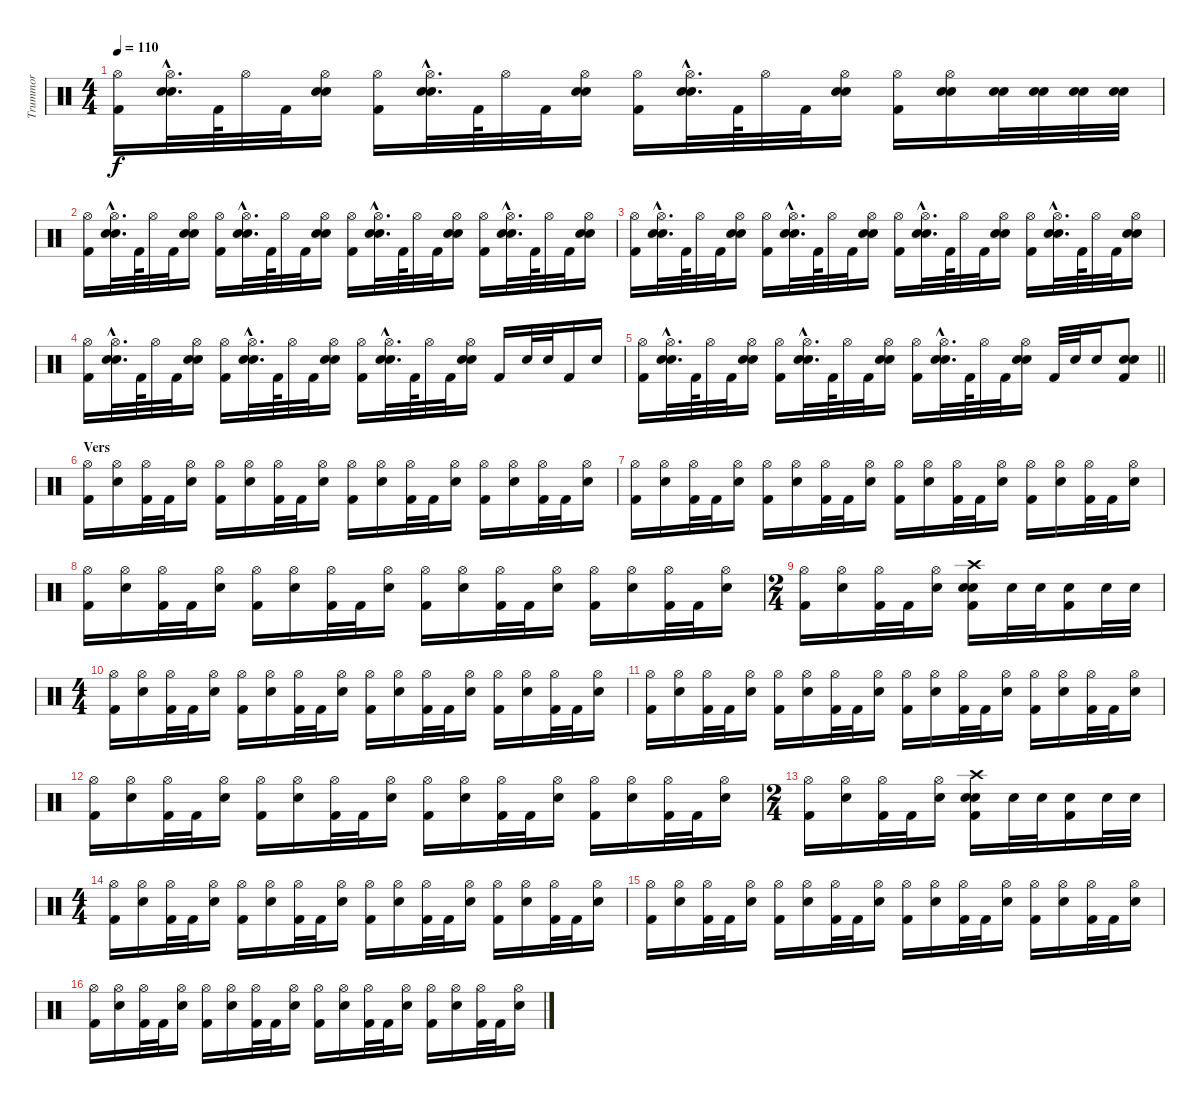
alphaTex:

\track ("Trummor" "Trummor") {instrument percussion}
\staff {score}
\articulation defaults
\ts (4 4)
\tempo 110
\clef neutral
\ks c
("Hi-Hat (open)" "Kick (hit) 2").16{dy f} ("Hi-Hat (open)"{hac} "Electric Snare (hit)"{hac} "Electric Snare (hit)"{hac}).32{d} "Kick (hit) 2".64 "Hi-Hat (open)".32 "Kick (hit) 2".32 ("Hi-Hat (open)" "Electric Snare (hit)" "Electric Snare (hit)").16 ("Hi-Hat (open)" "Kick (hit) 2").16 ("Hi-Hat (open)"{hac} "Electric Snare (hit)"{hac} "Electric Snare (hit)"{hac}).32{d} "Kick (hit) 2".64 "Hi-Hat (open)".32 "Kick (hit) 2".32 ("Hi-Hat (open)" "Electric Snare (hit)" "Electric Snare (hit)").16 ("Hi-Hat (open)" "Kick (hit) 2").16 ("Hi-Hat (open)"{hac} "Electric Snare (hit)"{hac} "Electric Snare (hit)"{hac}).32{d} "Kick (hit) 2".64 "Hi-Hat (open)".32 "Kick (hit) 2".32 ("Hi-Hat (open)" "Electric Snare (hit)" "Electric Snare (hit)").16 ("Hi-Hat (open)" "Kick (hit) 2").16 ("Hi-Hat (open)" "Electric Snare (hit)" "Electric Snare (hit)").16 ("Electric Snare (hit)" "Electric Snare (hit)").32 ("Electric Snare (hit)" "Electric Snare (hit)").32 ("Electric Snare (hit)" "Electric Snare (hit)").32 ("Electric Snare (hit)" "Electric Snare (hit)").32 |
("Hi-Hat (open)" "Kick (hit) 2").16 ("Hi-Hat (open)"{hac} "Electric Snare (hit)"{hac} "Electric Snare (hit)"{hac}).32{d} "Kick (hit) 2".64 "Hi-Hat (open)".32 "Kick (hit) 2".32 ("Hi-Hat (open)" "Electric Snare (hit)" "Electric Snare (hit)").16 ("Hi-Hat (open)" "Kick (hit) 2").16 ("Hi-Hat (open)"{hac} "Electric Snare (hit)"{hac} "Electric Snare (hit)"{hac}).32{d} "Kick (hit) 2".64 "Hi-Hat (open)".32 "Kick (hit) 2".32 ("Hi-Hat (open)" "Electric Snare (hit)" "Electric Snare (hit)").16 ("Hi-Hat (open)" "Kick (hit) 2").16 ("Hi-Hat (open)"{hac} "Electric Snare (hit)"{hac} "Electric Snare (hit)"{hac}).32{d} "Kick (hit) 2".64 "Hi-Hat (open)".32 "Kick (hit) 2".32 ("Hi-Hat (open)" "Electric Snare (hit)" "Electric Snare (hit)").16 ("Hi-Hat (open)" "Kick (hit) 2").16 ("Hi-Hat (open)"{hac} "Electric Snare (hit)"{hac} "Electric Snare (hit)"{hac}).32{d} "Kick (hit) 2".64 "Hi-Hat (open)".32 "Kick (hit) 2".32 ("Hi-Hat (open)" "Electric Snare (hit)" "Electric Snare (hit)").16 |
("Hi-Hat (open)" "Kick (hit) 2").16 ("Hi-Hat (open)"{hac} "Electric Snare (hit)"{hac} "Electric Snare (hit)"{hac}).32{d} "Kick (hit) 2".64 "Hi-Hat (open)".32 "Kick (hit) 2".32 ("Hi-Hat (open)" "Electric Snare (hit)" "Electric Snare (hit)").16 ("Hi-Hat (open)" "Kick (hit) 2").16 ("Hi-Hat (open)"{hac} "Electric Snare (hit)"{hac} "Electric Snare (hit)"{hac}).32{d} "Kick (hit) 2".64 "Hi-Hat (open)".32 "Kick (hit) 2".32 ("Hi-Hat (open)" "Electric Snare (hit)" "Electric Snare (hit)").16 ("Hi-Hat (open)" "Kick (hit) 2").16 ("Hi-Hat (open)"{hac} "Electric Snare (hit)"{hac} "Electric Snare (hit)"{hac}).32{d} "Kick (hit) 2".64 "Hi-Hat (open)".32 "Kick (hit) 2".32 ("Hi-Hat (open)" "Electric Snare (hit)" "Electric Snare (hit)").16 ("Hi-Hat (open)" "Kick (hit) 2").16 ("Hi-Hat (open)"{hac} "Electric Snare (hit)"{hac} "Electric Snare (hit)"{hac}).32{d} "Kick (hit) 2".64 "Hi-Hat (open)".32 "Kick (hit) 2".32 ("Hi-Hat (open)" "Electric Snare (hit)" "Electric Snare (hit)").16 |
("Hi-Hat (open)" "Kick (hit) 2").16 ("Hi-Hat (open)"{hac} "Electric Snare (hit)"{hac} "Electric Snare (hit)"{hac}).32{d} "Kick (hit) 2".64 "Hi-Hat (open)".32 "Kick (hit) 2".32 ("Hi-Hat (open)" "Electric Snare (hit)" "Electric Snare (hit)").16 ("Hi-Hat (open)" "Kick (hit) 2").16 ("Hi-Hat (open)"{hac} "Electric Snare (hit)"{hac} "Electric Snare (hit)"{hac}).32{d} "Kick (hit) 2".64 "Hi-Hat (open)".32 "Kick (hit) 2".32 ("Hi-Hat (open)" "Electric Snare (hit)" "Electric Snare (hit)").16 ("Hi-Hat (open)" "Kick (hit) 2").16 ("Hi-Hat (open)"{hac} "Electric Snare (hit)"{hac} "Electric Snare (hit)"{hac}).32{d} "Kick (hit) 2".64 "Hi-Hat (open)".32 "Kick (hit) 2".32 ("Hi-Hat (open)" "Electric Snare (hit)" "Electric Snare (hit)").16 "Kick (hit) 2".16 "Electric Snare (hit)".32 "Electric Snare (hit)".32 "Kick (hit) 2".16 "Electric Snare (hit)".16 |
\barLineRight lightlight
("Hi-Hat (open)" "Kick (hit) 2").16 ("Hi-Hat (open)"{hac} "Electric Snare (hit)"{hac} "Electric Snare (hit)"{hac}).32{d} "Kick (hit) 2".64 "Hi-Hat (open)".32 "Kick (hit) 2".32 ("Hi-Hat (open)" "Electric Snare (hit)" "Electric Snare (hit)").16 ("Hi-Hat (open)" "Kick (hit) 2").16 ("Hi-Hat (open)"{hac} "Electric Snare (hit)"{hac} "Electric Snare (hit)"{hac}).32{d} "Kick (hit) 2".64 "Hi-Hat (open)".32 "Kick (hit) 2".32 ("Hi-Hat (open)" "Electric Snare (hit)" "Electric Snare (hit)").16 ("Hi-Hat (open)" "Kick (hit) 2").16 ("Hi-Hat (open)"{hac} "Electric Snare (hit)"{hac} "Electric Snare (hit)"{hac}).32{d} "Kick (hit) 2".64 "Hi-Hat (open)".32 "Kick (hit) 2".32 ("Hi-Hat (open)" "Electric Snare (hit)" "Electric Snare (hit)").16 "Kick (hit) 2".32 "Electric Snare (hit)".32 "Electric Snare (hit)".16 ("Electric Snare (hit)" "Electric Snare (hit)" "Kick (hit) 2").8 |
\section ("" "Vers")
("Hi-Hat (open)" "Kick (hit) 2").16 ("Hi-Hat (open)" "Electric Snare (hit)").16 ("Hi-Hat (open)" "Kick (hit) 2").32 "Kick (hit) 2".32 ("Hi-Hat (open)" "Electric Snare (hit)").16 ("Hi-Hat (open)" "Kick (hit) 2").16 ("Hi-Hat (open)" "Electric Snare (hit)").16 ("Hi-Hat (open)" "Kick (hit) 2").32 "Kick (hit) 2".32 ("Hi-Hat (open)" "Electric Snare (hit)").16 ("Hi-Hat (open)" "Kick (hit) 2").16 ("Hi-Hat (open)" "Electric Snare (hit)").16 ("Hi-Hat (open)" "Kick (hit) 2").32 "Kick (hit) 2".32 ("Hi-Hat (open)" "Electric Snare (hit)").16 ("Hi-Hat (open)" "Kick (hit) 2").16 ("Hi-Hat (open)" "Electric Snare (hit)").16 ("Hi-Hat (open)" "Kick (hit) 2").32 "Kick (hit) 2".32 ("Hi-Hat (open)" "Electric Snare (hit)").16 |
("Hi-Hat (open)" "Kick (hit) 2").16 ("Hi-Hat (open)" "Electric Snare (hit)").16 ("Hi-Hat (open)" "Kick (hit) 2").32 "Kick (hit) 2".32 ("Hi-Hat (open)" "Electric Snare (hit)").16 ("Hi-Hat (open)" "Kick (hit) 2").16 ("Hi-Hat (open)" "Electric Snare (hit)").16 ("Hi-Hat (open)" "Kick (hit) 2").32 "Kick (hit) 2".32 ("Hi-Hat (open)" "Electric Snare (hit)").16 ("Hi-Hat (open)" "Kick (hit) 2").16 ("Hi-Hat (open)" "Electric Snare (hit)").16 ("Hi-Hat (open)" "Kick (hit) 2").32 "Kick (hit) 2".32 ("Hi-Hat (open)" "Electric Snare (hit)").16 ("Hi-Hat (open)" "Kick (hit) 2").16 ("Hi-Hat (open)" "Electric Snare (hit)").16 ("Hi-Hat (open)" "Kick (hit) 2").32 "Kick (hit) 2".32 ("Hi-Hat (open)" "Electric Snare (hit)").16 |
("Hi-Hat (open)" "Kick (hit) 2").16 ("Hi-Hat (open)" "Electric Snare (hit)").16 ("Hi-Hat (open)" "Kick (hit) 2").32 "Kick (hit) 2".32 ("Hi-Hat (open)" "Electric Snare (hit)").16 ("Hi-Hat (open)" "Kick (hit) 2").16 ("Hi-Hat (open)" "Electric Snare (hit)").16 ("Hi-Hat (open)" "Kick (hit) 2").32 "Kick (hit) 2".32 ("Hi-Hat (open)" "Electric Snare (hit)").16 ("Hi-Hat (open)" "Kick (hit) 2").16 ("Hi-Hat (open)" "Electric Snare (hit)").16 ("Hi-Hat (open)" "Kick (hit) 2").32 "Kick (hit) 2".32 ("Hi-Hat (open)" "Electric Snare (hit)").16 ("Hi-Hat (open)" "Kick (hit) 2").16 ("Hi-Hat (open)" "Electric Snare (hit)").16 ("Hi-Hat (open)" "Kick (hit) 2").32 "Kick (hit) 2".32 ("Hi-Hat (open)" "Electric Snare (hit)").16 |
\ts (2 4)
("Hi-Hat (open)" "Kick (hit) 2").16 ("Hi-Hat (open)" "Electric Snare (hit)").16 ("Hi-Hat (open)" "Kick (hit) 2").32 "Kick (hit) 2".32 ("Hi-Hat (open)" "Electric Snare (hit)").16 ("Crash high (hit)" "Electric Snare (hit)" "Electric Snare (hit)" "Kick (hit) 2").16 "Electric Snare (hit)".32 "Electric Snare (hit)".32 ("Electric Snare (hit)" "Kick (hit) 2").16 "Electric Snare (hit)".32 "Electric Snare (hit)".32 |
\ts (4 4)
("Hi-Hat (open)" "Kick (hit) 2").16 ("Hi-Hat (open)" "Electric Snare (hit)").16 ("Hi-Hat (open)" "Kick (hit) 2").32 "Kick (hit) 2".32 ("Hi-Hat (open)" "Electric Snare (hit)").16 ("Hi-Hat (open)" "Kick (hit) 2").16 ("Hi-Hat (open)" "Electric Snare (hit)").16 ("Hi-Hat (open)" "Kick (hit) 2").32 "Kick (hit) 2".32 ("Hi-Hat (open)" "Electric Snare (hit)").16 ("Hi-Hat (open)" "Kick (hit) 2").16 ("Hi-Hat (open)" "Electric Snare (hit)").16 ("Hi-Hat (open)" "Kick (hit) 2").32 "Kick (hit) 2".32 ("Hi-Hat (open)" "Electric Snare (hit)").16 ("Hi-Hat (open)" "Kick (hit) 2").16 ("Hi-Hat (open)" "Electric Snare (hit)").16 ("Hi-Hat (open)" "Kick (hit) 2").32 "Kick (hit) 2".32 ("Hi-Hat (open)" "Electric Snare (hit)").16 |
("Hi-Hat (open)" "Kick (hit) 2").16 ("Hi-Hat (open)" "Electric Snare (hit)").16 ("Hi-Hat (open)" "Kick (hit) 2").32 "Kick (hit) 2".32 ("Hi-Hat (open)" "Electric Snare (hit)").16 ("Hi-Hat (open)" "Kick (hit) 2").16 ("Hi-Hat (open)" "Electric Snare (hit)").16 ("Hi-Hat (open)" "Kick (hit) 2").32 "Kick (hit) 2".32 ("Hi-Hat (open)" "Electric Snare (hit)").16 ("Hi-Hat (open)" "Kick (hit) 2").16 ("Hi-Hat (open)" "Electric Snare (hit)").16 ("Hi-Hat (open)" "Kick (hit) 2").32 "Kick (hit) 2".32 ("Hi-Hat (open)" "Electric Snare (hit)").16 ("Hi-Hat (open)" "Kick (hit) 2").16 ("Hi-Hat (open)" "Electric Snare (hit)").16 ("Hi-Hat (open)" "Kick (hit) 2").32 "Kick (hit) 2".32 ("Hi-Hat (open)" "Electric Snare (hit)").16 |
("Hi-Hat (open)" "Kick (hit) 2").16 ("Hi-Hat (open)" "Electric Snare (hit)").16 ("Hi-Hat (open)" "Kick (hit) 2").32 "Kick (hit) 2".32 ("Hi-Hat (open)" "Electric Snare (hit)").16 ("Hi-Hat (open)" "Kick (hit) 2").16 ("Hi-Hat (open)" "Electric Snare (hit)").16 ("Hi-Hat (open)" "Kick (hit) 2").32 "Kick (hit) 2".32 ("Hi-Hat (open)" "Electric Snare (hit)").16 ("Hi-Hat (open)" "Kick (hit) 2").16 ("Hi-Hat (open)" "Electric Snare (hit)").16 ("Hi-Hat (open)" "Kick (hit) 2").32 "Kick (hit) 2".32 ("Hi-Hat (open)" "Electric Snare (hit)").16 ("Hi-Hat (open)" "Kick (hit) 2").16 ("Hi-Hat (open)" "Electric Snare (hit)").16 ("Hi-Hat (open)" "Kick (hit) 2").32 "Kick (hit) 2".32 ("Hi-Hat (open)" "Electric Snare (hit)").16 |
\ts (2 4)
("Hi-Hat (open)" "Kick (hit) 2").16 ("Hi-Hat (open)" "Electric Snare (hit)").16 ("Hi-Hat (open)" "Kick (hit) 2").32 "Kick (hit) 2".32 ("Hi-Hat (open)" "Electric Snare (hit)").16 ("Crash high (hit)" "Electric Snare (hit)" "Electric Snare (hit)" "Kick (hit) 2").16 "Electric Snare (hit)".32 "Electric Snare (hit)".32 ("Electric Snare (hit)" "Kick (hit) 2").16 "Electric Snare (hit)".32 "Electric Snare (hit)".32 |
\ts (4 4)
("Hi-Hat (open)" "Kick (hit) 2").16 ("Hi-Hat (open)" "Electric Snare (hit)").16 ("Hi-Hat (open)" "Kick (hit) 2").32 "Kick (hit) 2".32 ("Hi-Hat (open)" "Electric Snare (hit)").16 ("Hi-Hat (open)" "Kick (hit) 2").16 ("Hi-Hat (open)" "Electric Snare (hit)").16 ("Hi-Hat (open)" "Kick (hit) 2").32 "Kick (hit) 2".32 ("Hi-Hat (open)" "Electric Snare (hit)").16 ("Hi-Hat (open)" "Kick (hit) 2").16 ("Hi-Hat (open)" "Electric Snare (hit)").16 ("Hi-Hat (open)" "Kick (hit) 2").32 "Kick (hit) 2".32 ("Hi-Hat (open)" "Electric Snare (hit)").16 ("Hi-Hat (open)" "Kick (hit) 2").16 ("Hi-Hat (open)" "Electric Snare (hit)").16 ("Hi-Hat (open)" "Kick (hit) 2").32 "Kick (hit) 2".32 ("Hi-Hat (open)" "Electric Snare (hit)").16 |
("Hi-Hat (open)" "Kick (hit) 2").16 ("Hi-Hat (open)" "Electric Snare (hit)").16 ("Hi-Hat (open)" "Kick (hit) 2").32 "Kick (hit) 2".32 ("Hi-Hat (open)" "Electric Snare (hit)").16 ("Hi-Hat (open)" "Kick (hit) 2").16 ("Hi-Hat (open)" "Electric Snare (hit)").16 ("Hi-Hat (open)" "Kick (hit) 2").32 "Kick (hit) 2".32 ("Hi-Hat (open)" "Electric Snare (hit)").16 ("Hi-Hat (open)" "Kick (hit) 2").16 ("Hi-Hat (open)" "Electric Snare (hit)").16 ("Hi-Hat (open)" "Kick (hit) 2").32 "Kick (hit) 2".32 ("Hi-Hat (open)" "Electric Snare (hit)").16 ("Hi-Hat (open)" "Kick (hit) 2").16 ("Hi-Hat (open)" "Electric Snare (hit)").16 ("Hi-Hat (open)" "Kick (hit) 2").32 "Kick (hit) 2".32 ("Hi-Hat (open)" "Electric Snare (hit)").16 |
("Hi-Hat (open)" "Kick (hit) 2").16 ("Hi-Hat (open)" "Electric Snare (hit)").16 ("Hi-Hat (open)" "Kick (hit) 2").32 "Kick (hit) 2".32 ("Hi-Hat (open)" "Electric Snare (hit)").16 ("Hi-Hat (open)" "Kick (hit) 2").16 ("Hi-Hat (open)" "Electric Snare (hit)").16 ("Hi-Hat (open)" "Kick (hit) 2").32 "Kick (hit) 2".32 ("Hi-Hat (open)" "Electric Snare (hit)").16 ("Hi-Hat (open)" "Kick (hit) 2").16 ("Hi-Hat (open)" "Electric Snare (hit)").16 ("Hi-Hat (open)" "Kick (hit) 2").32 "Kick (hit) 2".32 ("Hi-Hat (open)" "Electric Snare (hit)").16 ("Hi-Hat (open)" "Kick (hit) 2").16 ("Hi-Hat (open)" "Electric Snare (hit)").16 ("Hi-Hat (open)" "Kick (hit) 2").32 "Kick (hit) 2".32 ("Hi-Hat (open)" "Electric Snare (hit)").16
